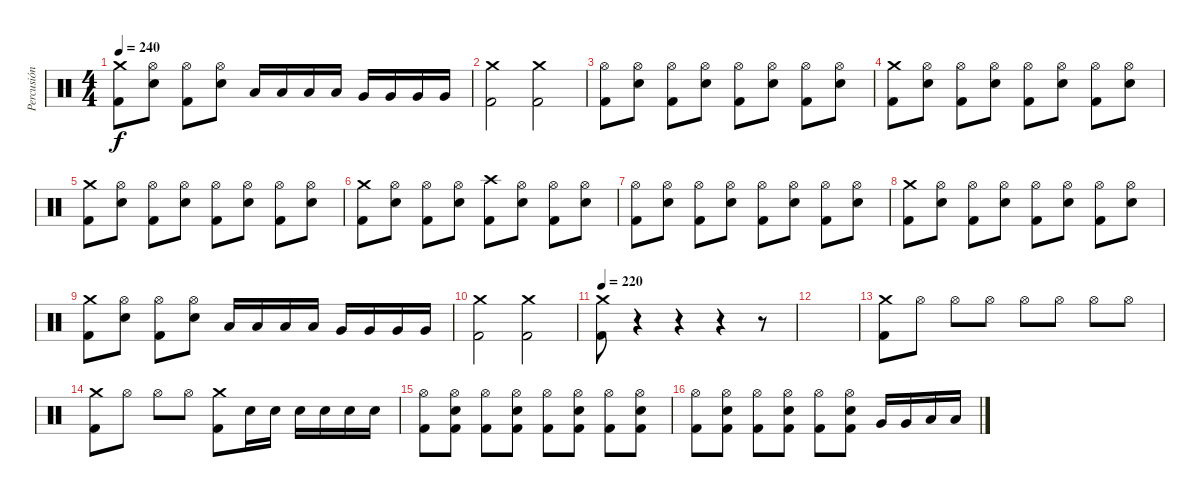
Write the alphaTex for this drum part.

\track ("Percusión" "Percusión") {instrument percussion}
\staff {score}
\articulation defaults
\ts (4 4)
\tempo 240
\clef neutral
\ks c
("Crash medium (hit)" "Kick (hit) 2").8{dy f} ("Hi-Hat (open)" "Electric Snare (hit)").8 ("Hi-Hat (open)" "Kick (hit) 2").8 ("Hi-Hat (open)" "Electric Snare (hit)").8 "Low Tom (hit)".16 "Low Tom (hit)".16 "Low Tom (hit)".16 "Low Tom (hit)".16 "Very Low Tom (hit)".16 "Very Low Tom (hit)".16 "Very Low Tom (hit)".16 "Very Low Tom (hit)".16 |
("Crash medium (hit)" "Kick (hit) 2").2 ("Crash medium (hit)" "Kick (hit) 2").2 |
("Hi-Hat (open)" "Kick (hit) 2").8 ("Hi-Hat (open)" "Electric Snare (hit)").8 ("Hi-Hat (open)" "Kick (hit) 2").8 ("Hi-Hat (open)" "Electric Snare (hit)").8 ("Hi-Hat (open)" "Kick (hit) 2").8 ("Hi-Hat (open)" "Electric Snare (hit)").8 ("Hi-Hat (open)" "Kick (hit) 2").8 ("Hi-Hat (open)" "Electric Snare (hit)").8 |
("Crash medium (hit)" "Kick (hit) 2").8 ("Hi-Hat (open)" "Electric Snare (hit)").8 ("Hi-Hat (open)" "Kick (hit) 2").8 ("Hi-Hat (open)" "Electric Snare (hit)").8 ("Hi-Hat (open)" "Kick (hit) 2").8 ("Hi-Hat (open)" "Electric Snare (hit)").8 ("Hi-Hat (open)" "Kick (hit) 2").8 ("Hi-Hat (open)" "Electric Snare (hit)").8 |
("Crash medium (hit)" "Kick (hit) 2").8 ("Hi-Hat (open)" "Electric Snare (hit)").8 ("Hi-Hat (open)" "Kick (hit) 2").8 ("Hi-Hat (open)" "Electric Snare (hit)").8 ("Hi-Hat (open)" "Kick (hit) 2").8 ("Hi-Hat (open)" "Electric Snare (hit)").8 ("Hi-Hat (open)" "Kick (hit) 2").8 ("Hi-Hat (open)" "Electric Snare (hit)").8 |
("Crash medium (hit)" "Kick (hit) 2").8 ("Hi-Hat (open)" "Electric Snare (hit)").8 ("Hi-Hat (open)" "Kick (hit) 2").8 ("Hi-Hat (open)" "Electric Snare (hit)").8 ("Crash high (hit)" "Kick (hit) 2").8 ("Hi-Hat (open)" "Electric Snare (hit)").8 ("Hi-Hat (open)" "Kick (hit) 2").8 ("Hi-Hat (open)" "Electric Snare (hit)").8 |
("Hi-Hat (open)" "Kick (hit) 2").8 ("Hi-Hat (open)" "Electric Snare (hit)").8 ("Hi-Hat (open)" "Kick (hit) 2").8 ("Hi-Hat (open)" "Electric Snare (hit)").8 ("Hi-Hat (open)" "Kick (hit) 2").8 ("Hi-Hat (open)" "Electric Snare (hit)").8 ("Hi-Hat (open)" "Kick (hit) 2").8 ("Hi-Hat (open)" "Electric Snare (hit)").8 |
("Crash medium (hit)" "Kick (hit) 2").8 ("Hi-Hat (open)" "Electric Snare (hit)").8 ("Hi-Hat (open)" "Kick (hit) 2").8 ("Hi-Hat (open)" "Electric Snare (hit)").8 ("Hi-Hat (open)" "Kick (hit) 2").8 ("Hi-Hat (open)" "Electric Snare (hit)").8 ("Hi-Hat (open)" "Kick (hit) 2").8 ("Hi-Hat (open)" "Electric Snare (hit)").8 |
("Crash medium (hit)" "Kick (hit) 2").8 ("Hi-Hat (open)" "Electric Snare (hit)").8 ("Hi-Hat (open)" "Kick (hit) 2").8 ("Hi-Hat (open)" "Electric Snare (hit)").8 "Low Tom (hit)".16 "Low Tom (hit)".16 "Low Tom (hit)".16 "Low Tom (hit)".16 "Very Low Tom (hit)".16 "Very Low Tom (hit)".16 "Very Low Tom (hit)".16 "Very Low Tom (hit)".16 |
("Crash medium (hit)" "Kick (hit) 2").2 ("Crash medium (hit)" "Kick (hit) 2").2 |
\tempo 220
("Crash medium (hit)" "Kick (hit) 2").8 r.4 r.4 r.4 r.8 |
|
("Crash medium (hit)" "Kick (hit) 2").8 "Hi-Hat (open)".8 "Hi-Hat (open)".8 "Hi-Hat (open)".8 "Hi-Hat (open)".8 "Hi-Hat (open)".8 "Hi-Hat (open)".8 "Hi-Hat (open)".8 |
("Crash medium (hit)" "Kick (hit) 2").8 "Hi-Hat (open)".8 "Hi-Hat (open)".8 "Hi-Hat (open)".8 ("Crash medium (hit)" "Kick (hit) 2").8 "Snare (hit) 2".16 "Snare (hit) 2".16 "Snare (hit) 2".16 "Snare (hit) 2".16 "Snare (hit) 2".16 "Snare (hit) 2".16 |
("Hi-Hat (open)" "Kick (hit) 2").8 ("Hi-Hat (open)" "Snare (hit) 2" "Kick (hit) 2").8 ("Hi-Hat (open)" "Kick (hit) 2").8 ("Hi-Hat (open)" "Snare (hit) 2" "Kick (hit) 2").8 ("Hi-Hat (open)" "Kick (hit) 2").8 ("Hi-Hat (open)" "Snare (hit) 2" "Kick (hit) 2").8 ("Hi-Hat (open)" "Kick (hit) 2").8 ("Hi-Hat (open)" "Snare (hit) 2" "Kick (hit) 2").8 |
("Hi-Hat (open)" "Kick (hit) 2").8 ("Hi-Hat (open)" "Snare (hit) 2" "Kick (hit) 2").8 ("Hi-Hat (open)" "Kick (hit) 2").8 ("Hi-Hat (open)" "Snare (hit) 2" "Kick (hit) 2").8 ("Hi-Hat (open)" "Kick (hit) 2").8 ("Hi-Hat (open)" "Snare (hit) 2" "Kick (hit) 2").8 "Very Low Tom (hit)".16 "Very Low Tom (hit)".16 "Low Tom (hit)".16 "Low Tom (hit)".16
